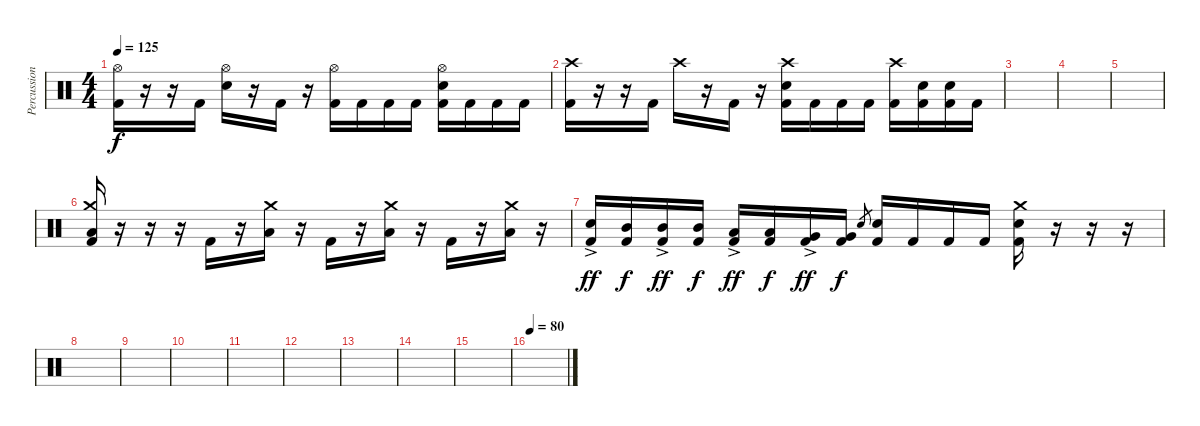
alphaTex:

\track ("Percussion" "Percussion") {instrument percussion}
\staff {score}
\articulation defaults
\ts (4 4)
\tempo 125
\clef neutral
\ks c
("Hi-Hat (open)" "Kick (hit) 2").16{dy f} r.16 r.16 "Kick (hit) 2".16 ("Hi-Hat (open)" "Electric Snare (hit)").16 r.16 "Kick (hit) 2".16 r.16 ("Hi-Hat (open)" "Kick (hit) 2").16 "Kick (hit) 2".16 "Kick (hit) 2".16 "Kick (hit) 2".16 ("Hi-Hat (open)" "Electric Snare (hit)" "Kick (hit) 2").16 "Kick (hit) 2".16 "Kick (hit) 2".16 "Kick (hit) 2".16 |
("Crash high (hit)" "Kick (hit) 2").16 r.16 r.16 "Kick (hit) 2".16 "Crash high (hit)".16 r.16 "Kick (hit) 2".16 r.16 ("Crash high (hit)" "Electric Snare (hit)" "Kick (hit) 2").16 "Kick (hit) 2".16 "Kick (hit) 2".16 "Kick (hit) 2".16 ("Crash high (hit)" "Kick (hit) 2").16 ("Electric Snare (hit)" "Kick (hit) 2").16 ("Electric Snare (hit)" "Kick (hit) 2").16 "Kick (hit) 2".16 |
|
|
|
("Crash medium (hit)" "Low Floor Tom (hit)" "Kick (hit) 2").16 r.16 r.16 r.16 "Kick (hit) 2".16 r.16 ("Crash medium (hit)" "Low Floor Tom (hit)").16 r.16 "Kick (hit) 2".16 r.16 ("Crash medium (hit)" "Low Floor Tom (hit)").16 r.16 "Kick (hit) 2".16 r.16 ("Crash medium (hit)" "Low Floor Tom (hit)").16 r.16 |
("Electric Snare (hit)"{ac} "Kick (hit) 2").16{dy ff} ("Mid Tom (hit)" "Kick (hit) 2").16{dy f} ("Mid Tom (hit)"{ac} "Kick (hit) 2").16{dy ff} ("Mid Tom (hit)" "Kick (hit) 2").16{dy f} ("Low Tom (hit)"{ac} "Kick (hit) 2").16{dy ff} ("Low Tom (hit)" "Kick (hit) 2").16{dy f} ("Very Low Tom (hit)"{ac} "Kick (hit) 2").16{dy ff} ("Very Low Tom (hit)" "Kick (hit) 2").16{dy f} "Snare (hit)".8{gr} ("Electric Snare (hit)" "Kick (hit) 2").16 "Kick (hit) 2".16 "Kick (hit) 2".16 "Kick (hit) 2".16 ("Crash medium (hit)" "Electric Snare (hit)" "Kick (hit) 2").16 r.16 r.16 r.16 |
|
|
|
|
|
|
|
|
\tempo 80
